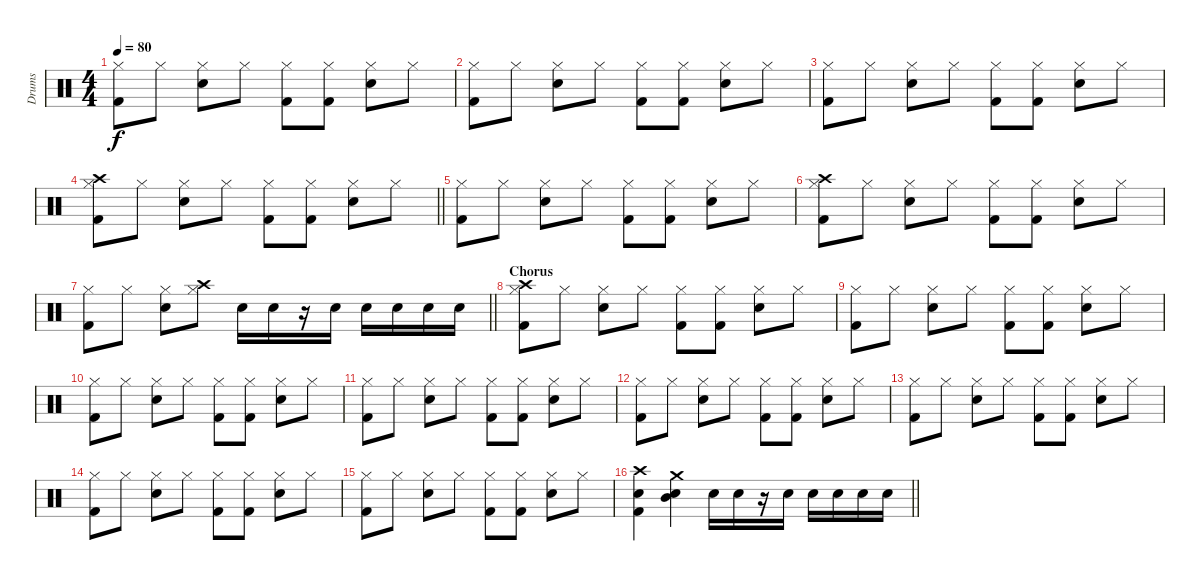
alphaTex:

\track ("Drums" "Drums") {instrument percussion}
\staff {score}
\articulation defaults
\ts (4 4)
\tempo 80
\clef neutral
\ks c
("Hi-Hat (closed)" "Kick (hit) 2").8{dy f} "Hi-Hat (closed)".8 ("Hi-Hat (closed)" "Snare (hit) 2").8 "Hi-Hat (closed)".8 ("Hi-Hat (closed)" "Kick (hit) 2").8 ("Hi-Hat (closed)" "Kick (hit) 2").8 ("Hi-Hat (closed)" "Snare (hit) 2").8 "Hi-Hat (closed)".8 |
("Hi-Hat (closed)" "Kick (hit) 2").8 "Hi-Hat (closed)".8 ("Hi-Hat (closed)" "Snare (hit) 2").8 "Hi-Hat (closed)".8 ("Hi-Hat (closed)" "Kick (hit) 2").8 ("Hi-Hat (closed)" "Kick (hit) 2").8 ("Hi-Hat (closed)" "Snare (hit) 2").8 "Hi-Hat (closed)".8 |
("Hi-Hat (closed)" "Kick (hit) 2").8 "Hi-Hat (closed)".8 ("Hi-Hat (closed)" "Snare (hit) 2").8 "Hi-Hat (closed)".8 ("Hi-Hat (closed)" "Kick (hit) 2").8 ("Hi-Hat (closed)" "Kick (hit) 2").8 ("Hi-Hat (closed)" "Snare (hit) 2").8 "Hi-Hat (closed)".8 |
\barLineRight lightlight
("Hi-Hat (closed)" "Crash high (hit)" "Kick (hit) 2").8 "Hi-Hat (closed)".8 ("Hi-Hat (closed)" "Snare (hit) 2").8 "Hi-Hat (closed)".8 ("Hi-Hat (closed)" "Kick (hit) 2").8 ("Hi-Hat (closed)" "Kick (hit) 2").8 ("Hi-Hat (closed)" "Snare (hit) 2").8 "Hi-Hat (closed)".8 |
("Hi-Hat (closed)" "Kick (hit) 2").8 "Hi-Hat (closed)".8 ("Hi-Hat (closed)" "Snare (hit) 2").8 "Hi-Hat (closed)".8 ("Hi-Hat (closed)" "Kick (hit) 2").8 ("Hi-Hat (closed)" "Kick (hit) 2").8 ("Hi-Hat (closed)" "Snare (hit) 2").8 "Hi-Hat (closed)".8 |
("Hi-Hat (closed)" "Crash high (hit)" "Kick (hit) 2").8 "Hi-Hat (closed)".8 ("Hi-Hat (closed)" "Snare (hit) 2").8 "Hi-Hat (closed)".8 ("Hi-Hat (closed)" "Kick (hit) 2").8 ("Hi-Hat (closed)" "Kick (hit) 2").8 ("Hi-Hat (closed)" "Snare (hit) 2").8 "Hi-Hat (closed)".8 |
\barLineRight lightlight
("Hi-Hat (closed)" "Kick (hit) 2").8 "Hi-Hat (closed)".8 ("Hi-Hat (closed)" "Snare (hit) 2").8 ("Hi-Hat (closed)" "Crash high (hit)").8 "Snare (hit) 2".16 "Snare (hit) 2".16 r.16 "Snare (hit) 2".16 "Snare (hit) 2".16 "Snare (hit) 2".16 "Snare (hit) 2".16 "Snare (hit) 2".16 |
\section ("" "Chorus")
("Hi-Hat (closed)" "Crash high (hit)" "Kick (hit) 2").8 "Hi-Hat (closed)".8 ("Hi-Hat (closed)" "Snare (hit) 2").8 "Hi-Hat (closed)".8 ("Hi-Hat (closed)" "Kick (hit) 2").8 ("Hi-Hat (closed)" "Kick (hit) 2").8 ("Hi-Hat (closed)" "Snare (hit) 2").8 "Hi-Hat (closed)".8 |
("Hi-Hat (closed)" "Kick (hit) 2").8 "Hi-Hat (closed)".8 ("Hi-Hat (closed)" "Snare (hit) 2").8 "Hi-Hat (closed)".8 ("Hi-Hat (closed)" "Kick (hit) 2").8 ("Hi-Hat (closed)" "Kick (hit) 2").8 ("Hi-Hat (closed)" "Snare (hit) 2").8 "Hi-Hat (closed)".8 |
("Hi-Hat (closed)" "Kick (hit) 2").8 "Hi-Hat (closed)".8 ("Hi-Hat (closed)" "Snare (hit) 2").8 "Hi-Hat (closed)".8 ("Hi-Hat (closed)" "Kick (hit) 2").8 ("Hi-Hat (closed)" "Kick (hit) 2").8 ("Hi-Hat (closed)" "Snare (hit) 2").8 "Hi-Hat (closed)".8 |
("Hi-Hat (closed)" "Kick (hit) 2").8 "Hi-Hat (closed)".8 ("Hi-Hat (closed)" "Snare (hit) 2").8 "Hi-Hat (closed)".8 ("Hi-Hat (closed)" "Kick (hit) 2").8 ("Hi-Hat (closed)" "Kick (hit) 2").8 ("Hi-Hat (closed)" "Snare (hit) 2").8 "Hi-Hat (closed)".8 |
("Hi-Hat (closed)" "Kick (hit) 2").8 "Hi-Hat (closed)".8 ("Hi-Hat (closed)" "Snare (hit) 2").8 "Hi-Hat (closed)".8 ("Hi-Hat (closed)" "Kick (hit) 2").8 ("Hi-Hat (closed)" "Kick (hit) 2").8 ("Hi-Hat (closed)" "Snare (hit) 2").8 "Hi-Hat (closed)".8 |
("Hi-Hat (closed)" "Kick (hit) 2").8 "Hi-Hat (closed)".8 ("Hi-Hat (closed)" "Snare (hit) 2").8 "Hi-Hat (closed)".8 ("Hi-Hat (closed)" "Kick (hit) 2").8 ("Hi-Hat (closed)" "Kick (hit) 2").8 ("Hi-Hat (closed)" "Snare (hit) 2").8 "Hi-Hat (closed)".8 |
("Hi-Hat (closed)" "Kick (hit) 2").8 "Hi-Hat (closed)".8 ("Hi-Hat (closed)" "Snare (hit) 2").8 "Hi-Hat (closed)".8 ("Hi-Hat (closed)" "Kick (hit) 2").8 ("Hi-Hat (closed)" "Kick (hit) 2").8 ("Hi-Hat (closed)" "Snare (hit) 2").8 "Hi-Hat (closed)".8 |
("Hi-Hat (closed)" "Kick (hit) 2").8 "Hi-Hat (closed)".8 ("Hi-Hat (closed)" "Snare (hit) 2").8 "Hi-Hat (closed)".8 ("Hi-Hat (closed)" "Kick (hit) 2").8 ("Hi-Hat (closed)" "Kick (hit) 2").8 ("Hi-Hat (closed)" "Snare (hit) 2").8 "Hi-Hat (closed)".8 |
\barLineRight lightlight
("Crash high (hit)" "Kick (hit) 2" "Snare (hit) 2").4 ("Crash medium (hit)" "Snare (hit) 2" "Mid Tom (hit)").4 "Snare (hit) 2".16 "Snare (hit) 2".16 r.16 "Snare (hit) 2".16 "Snare (hit) 2".16 "Snare (hit) 2".16 "Snare (hit) 2".16 "Snare (hit) 2".16
